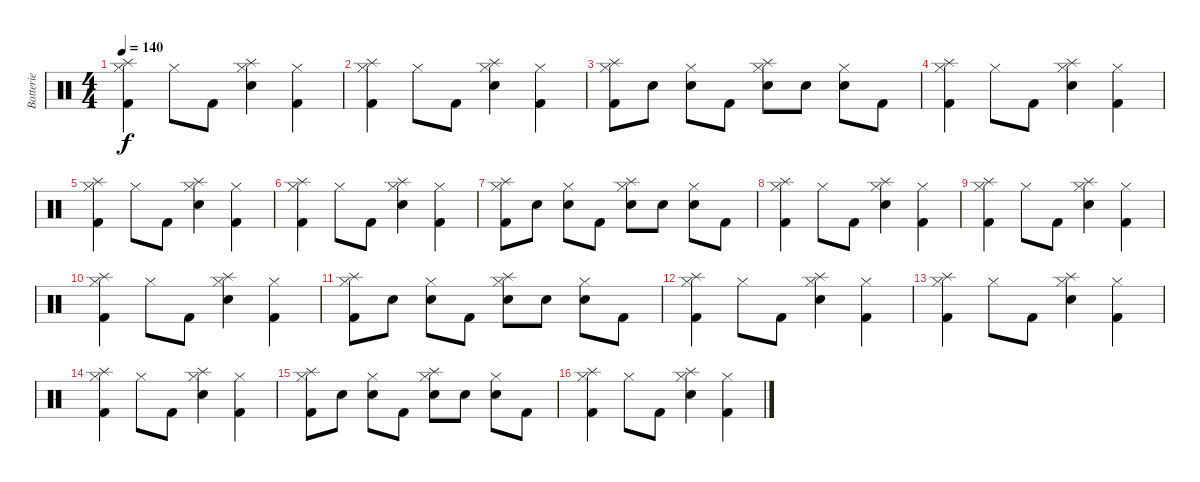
\track ("Batterie" "Batterie") {instrument percussion}
\staff {score}
\articulation defaults
\ts (4 4)
\tempo 140
\clef neutral
\ks c
("Splash (hit)" "Hi-Hat (closed)" "Kick (hit) 2").4{dy f} "Hi-Hat (closed)".8 "Kick (hit) 2".8 ("Splash (hit)" "Hi-Hat (closed)" "Snare (hit) 2").4 ("Hi-Hat (closed)" "Kick (hit) 2").4 |
("Splash (hit)" "Hi-Hat (closed)" "Kick (hit) 2").4 "Hi-Hat (closed)".8 "Kick (hit) 2".8 ("Splash (hit)" "Hi-Hat (closed)" "Snare (hit) 2").4 ("Hi-Hat (closed)" "Kick (hit) 2").4 |
("Splash (hit)" "Hi-Hat (closed)" "Kick (hit) 2").8 "Snare (hit) 2".8 ("Hi-Hat (closed)" "Snare (hit) 2").8 "Kick (hit) 2".8 ("Splash (hit)" "Hi-Hat (closed)" "Snare (hit) 2").8 "Snare (hit) 2".8 ("Hi-Hat (closed)" "Snare (hit) 2").8 "Kick (hit) 2".8 |
("Splash (hit)" "Hi-Hat (closed)" "Kick (hit) 2").4 "Hi-Hat (closed)".8 "Kick (hit) 2".8 ("Splash (hit)" "Hi-Hat (closed)" "Snare (hit) 2").4 ("Hi-Hat (closed)" "Kick (hit) 2").4 |
("Splash (hit)" "Hi-Hat (closed)" "Kick (hit) 2").4 "Hi-Hat (closed)".8 "Kick (hit) 2".8 ("Splash (hit)" "Hi-Hat (closed)" "Snare (hit) 2").4 ("Hi-Hat (closed)" "Kick (hit) 2").4 |
("Splash (hit)" "Hi-Hat (closed)" "Kick (hit) 2").4 "Hi-Hat (closed)".8 "Kick (hit) 2".8 ("Splash (hit)" "Hi-Hat (closed)" "Snare (hit) 2").4 ("Hi-Hat (closed)" "Kick (hit) 2").4 |
("Splash (hit)" "Hi-Hat (closed)" "Kick (hit) 2").8 "Snare (hit) 2".8 ("Hi-Hat (closed)" "Snare (hit) 2").8 "Kick (hit) 2".8 ("Splash (hit)" "Hi-Hat (closed)" "Snare (hit) 2").8 "Snare (hit) 2".8 ("Hi-Hat (closed)" "Snare (hit) 2").8 "Kick (hit) 2".8 |
("Splash (hit)" "Hi-Hat (closed)" "Kick (hit) 2").4 "Hi-Hat (closed)".8 "Kick (hit) 2".8 ("Splash (hit)" "Hi-Hat (closed)" "Snare (hit) 2").4 ("Hi-Hat (closed)" "Kick (hit) 2").4 |
("Splash (hit)" "Hi-Hat (closed)" "Kick (hit) 2").4 "Hi-Hat (closed)".8 "Kick (hit) 2".8 ("Splash (hit)" "Hi-Hat (closed)" "Snare (hit) 2").4 ("Hi-Hat (closed)" "Kick (hit) 2").4 |
("Splash (hit)" "Hi-Hat (closed)" "Kick (hit) 2").4 "Hi-Hat (closed)".8 "Kick (hit) 2".8 ("Splash (hit)" "Hi-Hat (closed)" "Snare (hit) 2").4 ("Hi-Hat (closed)" "Kick (hit) 2").4 |
("Splash (hit)" "Hi-Hat (closed)" "Kick (hit) 2").8 "Snare (hit) 2".8 ("Hi-Hat (closed)" "Snare (hit) 2").8 "Kick (hit) 2".8 ("Splash (hit)" "Hi-Hat (closed)" "Snare (hit) 2").8 "Snare (hit) 2".8 ("Hi-Hat (closed)" "Snare (hit) 2").8 "Kick (hit) 2".8 |
("Splash (hit)" "Hi-Hat (closed)" "Kick (hit) 2").4 "Hi-Hat (closed)".8 "Kick (hit) 2".8 ("Splash (hit)" "Hi-Hat (closed)" "Snare (hit) 2").4 ("Hi-Hat (closed)" "Kick (hit) 2").4 |
("Splash (hit)" "Hi-Hat (closed)" "Kick (hit) 2").4 "Hi-Hat (closed)".8 "Kick (hit) 2".8 ("Splash (hit)" "Hi-Hat (closed)" "Snare (hit) 2").4 ("Hi-Hat (closed)" "Kick (hit) 2").4 |
("Splash (hit)" "Hi-Hat (closed)" "Kick (hit) 2").4 "Hi-Hat (closed)".8 "Kick (hit) 2".8 ("Splash (hit)" "Hi-Hat (closed)" "Snare (hit) 2").4 ("Hi-Hat (closed)" "Kick (hit) 2").4 |
("Splash (hit)" "Hi-Hat (closed)" "Kick (hit) 2").8 "Snare (hit) 2".8 ("Hi-Hat (closed)" "Snare (hit) 2").8 "Kick (hit) 2".8 ("Splash (hit)" "Hi-Hat (closed)" "Snare (hit) 2").8 "Snare (hit) 2".8 ("Hi-Hat (closed)" "Snare (hit) 2").8 "Kick (hit) 2".8 |
("Splash (hit)" "Hi-Hat (closed)" "Kick (hit) 2").4 "Hi-Hat (closed)".8 "Kick (hit) 2".8 ("Splash (hit)" "Hi-Hat (closed)" "Snare (hit) 2").4 ("Hi-Hat (closed)" "Kick (hit) 2").4
